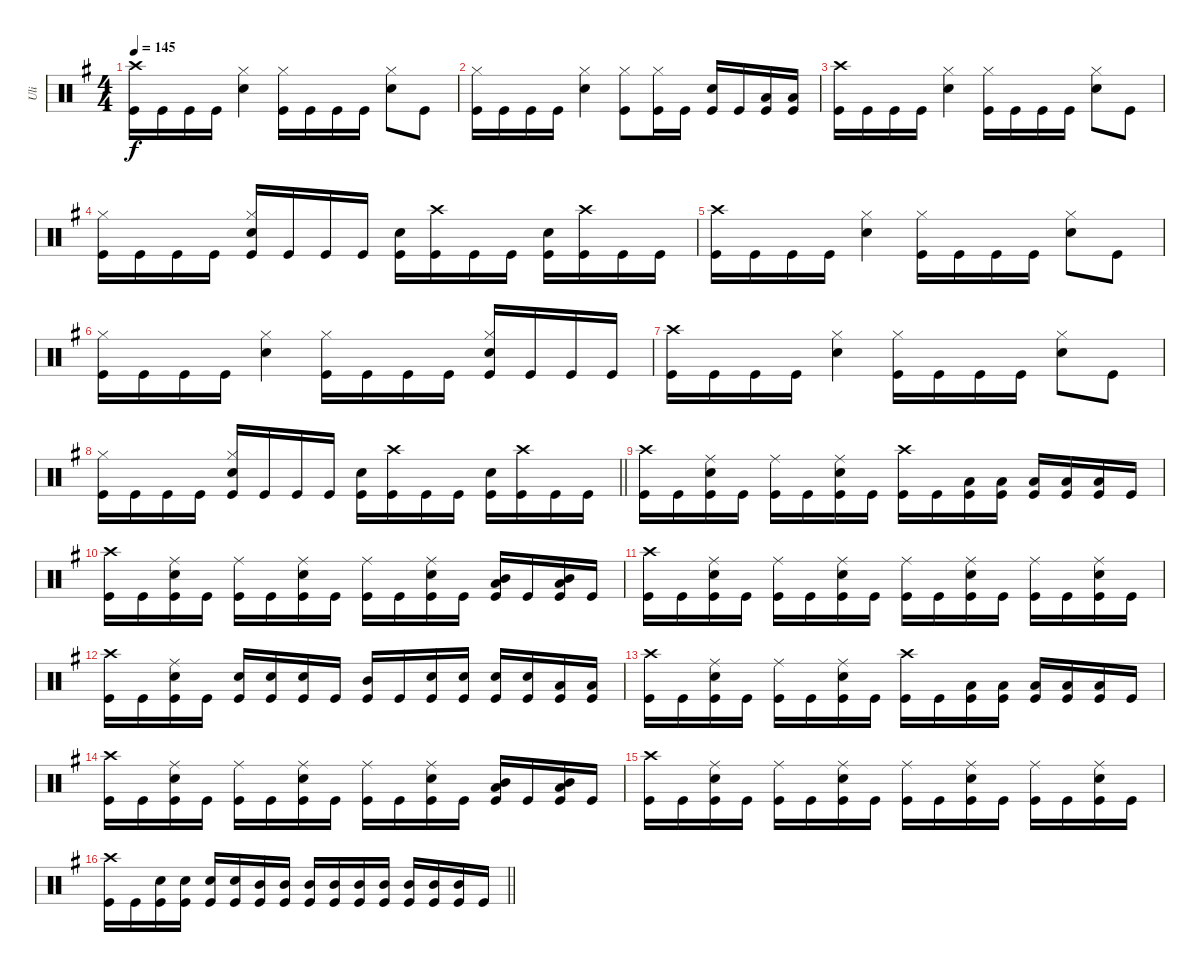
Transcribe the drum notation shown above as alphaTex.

\track ("Uli" "Uli") {instrument percussion}
\staff {score}
\articulation defaults
\ts (4 4)
\tempo 145
\clef neutral
\ks eminor
("Crash high (hit)" "Kick (hit)").16{dy f} "Kick (hit)".16 "Kick (hit)".16 "Kick (hit)".16 ("Hi-Hat (closed)" "Snare (hit) 2").4 ("Hi-Hat (closed)" "Kick (hit)").16 "Kick (hit)".16 "Kick (hit)".16 "Kick (hit)".16 ("Hi-Hat (closed)" "Snare (hit) 2").8 "Kick (hit)".8 |
("Hi-Hat (closed)" "Kick (hit)").16 "Kick (hit)".16 "Kick (hit)".16 "Kick (hit)".16 ("Hi-Hat (closed)" "Snare (hit) 2").4 ("Hi-Hat (closed)" "Kick (hit)").8 ("Hi-Hat (closed)" "Kick (hit)").16 "Kick (hit)".16 ("Snare (hit) 2" "Kick (hit)").16 "Kick (hit)".16 ("Low Tom (hit)" "Kick (hit)").16 ("Low Tom (hit)" "Kick (hit)").16 |
("Crash high (hit)" "Kick (hit)").16 "Kick (hit)".16 "Kick (hit)".16 "Kick (hit)".16 ("Hi-Hat (closed)" "Snare (hit) 2").4 ("Hi-Hat (closed)" "Kick (hit)").16 "Kick (hit)".16 "Kick (hit)".16 "Kick (hit)".16 ("Hi-Hat (closed)" "Snare (hit) 2").8 "Kick (hit)".8 |
("Hi-Hat (closed)" "Kick (hit)").16 "Kick (hit)".16 "Kick (hit)".16 "Kick (hit)".16 ("Hi-Hat (closed)" "Snare (hit) 2" "Kick (hit)").16 "Kick (hit)".16 "Kick (hit)".16 "Kick (hit)".16 ("Snare (hit) 2" "Kick (hit)").16 ("Crash high (hit)" "Kick (hit)").16 "Kick (hit)".16 "Kick (hit)".16 ("Snare (hit) 2" "Kick (hit)").16 ("Crash high (hit)" "Kick (hit)").16 "Kick (hit)".16 "Kick (hit)".16 |
("Crash high (hit)" "Kick (hit)").16 "Kick (hit)".16 "Kick (hit)".16 "Kick (hit)".16 ("Hi-Hat (closed)" "Snare (hit) 2").4 ("Hi-Hat (closed)" "Kick (hit)").16 "Kick (hit)".16 "Kick (hit)".16 "Kick (hit)".16 ("Hi-Hat (closed)" "Snare (hit) 2").8 "Kick (hit)".8 |
("Hi-Hat (closed)" "Kick (hit)").16 "Kick (hit)".16 "Kick (hit)".16 "Kick (hit)".16 ("Hi-Hat (closed)" "Snare (hit) 2").4 ("Hi-Hat (closed)" "Kick (hit)").16 "Kick (hit)".16 "Kick (hit)".16 "Kick (hit)".16 ("Hi-Hat (closed)" "Snare (hit) 2" "Kick (hit)").16 "Kick (hit)".16 "Kick (hit)".16 "Kick (hit)".16 |
("Crash high (hit)" "Kick (hit)").16 "Kick (hit)".16 "Kick (hit)".16 "Kick (hit)".16 ("Hi-Hat (closed)" "Snare (hit) 2").4 ("Hi-Hat (closed)" "Kick (hit)").16 "Kick (hit)".16 "Kick (hit)".16 "Kick (hit)".16 ("Hi-Hat (closed)" "Snare (hit) 2").8 "Kick (hit)".8 |
\barLineRight lightlight
("Hi-Hat (closed)" "Kick (hit)").16 "Kick (hit)".16 "Kick (hit)".16 "Kick (hit)".16 ("Hi-Hat (closed)" "Snare (hit) 2" "Kick (hit)").16 "Kick (hit)".16 "Kick (hit)".16 "Kick (hit)".16 ("Snare (hit) 2" "Kick (hit)").16 ("Crash high (hit)" "Kick (hit)").16 "Kick (hit)".16 "Kick (hit)".16 ("Snare (hit) 2" "Kick (hit)").16 ("Crash high (hit)" "Kick (hit)").16 "Kick (hit)".16 "Kick (hit)".16 |
("Crash high (hit)" "Kick (hit)").16 "Kick (hit)".16 ("Ride (middle)" "Snare (hit) 2" "Kick (hit)").16 "Kick (hit)".16 ("Ride (middle)" "Kick (hit)").16 "Kick (hit)".16 ("Ride (middle)" "Snare (hit) 2" "Kick (hit)").16 "Kick (hit)".16 ("Crash high (hit)" "Kick (hit)").16 "Kick (hit)".16 ("Low Tom (hit)" "Kick (hit)").16 ("Low Tom (hit)" "Kick (hit)").16 ("Low Tom (hit)" "Kick (hit)").16 ("Low Tom (hit)" "Kick (hit)").16 ("Low Tom (hit)" "Kick (hit)").16 "Kick (hit)".16 |
("Crash high (hit)" "Kick (hit)").16 "Kick (hit)".16 ("Ride (middle)" "Snare (hit) 2" "Kick (hit)").16 "Kick (hit)".16 ("Ride (middle)" "Kick (hit)").16 "Kick (hit)".16 ("Ride (middle)" "Snare (hit) 2" "Kick (hit)").16 "Kick (hit)".16 ("Ride (middle)" "Kick (hit)").16 "Kick (hit)".16 ("Ride (middle)" "Snare (hit) 2" "Kick (hit)").16 "Kick (hit)".16 ("Mid Tom (hit)" "Low Tom (hit)" "Kick (hit)").16 "Kick (hit)".16 ("Mid Tom (hit)" "Low Tom (hit)" "Kick (hit)").16 "Kick (hit)".16 |
("Crash high (hit)" "Kick (hit)").16 "Kick (hit)".16 ("Ride (middle)" "Snare (hit) 2" "Kick (hit)").16 "Kick (hit)".16 ("Ride (middle)" "Kick (hit)").16 "Kick (hit)".16 ("Ride (middle)" "Snare (hit) 2" "Kick (hit)").16 "Kick (hit)".16 ("Ride (middle)" "Kick (hit)").16 "Kick (hit)".16 ("Ride (middle)" "Snare (hit) 2" "Kick (hit)").16 "Kick (hit)".16 ("Ride (middle)" "Kick (hit)").16 "Kick (hit)".16 ("Ride (middle)" "Snare (hit) 2" "Kick (hit)").16 "Kick (hit)".16 |
("Crash high (hit)" "Kick (hit)").16 "Kick (hit)".16 ("Ride (middle)" "Snare (hit) 2" "Kick (hit)").16 "Kick (hit)".16 ("Snare (hit) 2" "Kick (hit)").16 ("Snare (hit) 2" "Kick (hit)").16 ("Snare (hit) 2" "Kick (hit)").16 "Kick (hit)".16 ("Mid Tom (hit)" "Kick (hit)").16 "Kick (hit)".16 ("Snare (hit) 2" "Kick (hit)").16 ("Snare (hit) 2" "Kick (hit)").16 ("Snare (hit) 2" "Kick (hit)").16 ("Snare (hit) 2" "Kick (hit)").16 ("Low Tom (hit)" "Kick (hit)").16 ("Low Tom (hit)" "Kick (hit)").16 |
("Crash high (hit)" "Kick (hit)").16 "Kick (hit)".16 ("Ride (middle)" "Snare (hit) 2" "Kick (hit)").16 "Kick (hit)".16 ("Ride (middle)" "Kick (hit)").16 "Kick (hit)".16 ("Ride (middle)" "Snare (hit) 2" "Kick (hit)").16 "Kick (hit)".16 ("Crash high (hit)" "Kick (hit)").16 "Kick (hit)".16 ("Low Tom (hit)" "Kick (hit)").16 ("Low Tom (hit)" "Kick (hit)").16 ("Low Tom (hit)" "Kick (hit)").16 ("Low Tom (hit)" "Kick (hit)").16 ("Low Tom (hit)" "Kick (hit)").16 "Kick (hit)".16 |
("Crash high (hit)" "Kick (hit)").16 "Kick (hit)".16 ("Ride (middle)" "Snare (hit) 2" "Kick (hit)").16 "Kick (hit)".16 ("Ride (middle)" "Kick (hit)").16 "Kick (hit)".16 ("Ride (middle)" "Snare (hit) 2" "Kick (hit)").16 "Kick (hit)".16 ("Ride (middle)" "Kick (hit)").16 "Kick (hit)".16 ("Ride (middle)" "Snare (hit) 2" "Kick (hit)").16 "Kick (hit)".16 ("Mid Tom (hit)" "Low Tom (hit)" "Kick (hit)").16 "Kick (hit)".16 ("Mid Tom (hit)" "Low Tom (hit)" "Kick (hit)").16 "Kick (hit)".16 |
("Crash high (hit)" "Kick (hit)").16 "Kick (hit)".16 ("Ride (middle)" "Snare (hit) 2" "Kick (hit)").16 "Kick (hit)".16 ("Ride (middle)" "Kick (hit)").16 "Kick (hit)".16 ("Ride (middle)" "Snare (hit) 2" "Kick (hit)").16 "Kick (hit)".16 ("Ride (middle)" "Kick (hit)").16 "Kick (hit)".16 ("Ride (middle)" "Snare (hit) 2" "Kick (hit)").16 "Kick (hit)".16 ("Ride (middle)" "Kick (hit)").16 "Kick (hit)".16 ("Ride (middle)" "Snare (hit) 2" "Kick (hit)").16 "Kick (hit)".16 |
\barLineRight lightlight
("Crash high (hit)" "Kick (hit)").16 "Kick (hit)".16 ("Snare (hit) 2" "Kick (hit)").16 ("Snare (hit) 2" "Kick (hit)").16 ("Snare (hit) 2" "Kick (hit)").16 ("Snare (hit) 2" "Kick (hit)").16 ("Mid Tom (hit)" "Kick (hit)").16 ("Mid Tom (hit)" "Kick (hit)").16 ("Mid Tom (hit)" "Kick (hit)").16 ("Mid Tom (hit)" "Kick (hit)").16 ("Mid Tom (hit)" "Kick (hit)").16 ("Mid Tom (hit)" "Kick (hit)").16 ("Mid Tom (hit)" "Kick (hit)").16 ("Mid Tom (hit)" "Kick (hit)").16 ("Mid Tom (hit)" "Kick (hit)").16 "Kick (hit)".16
